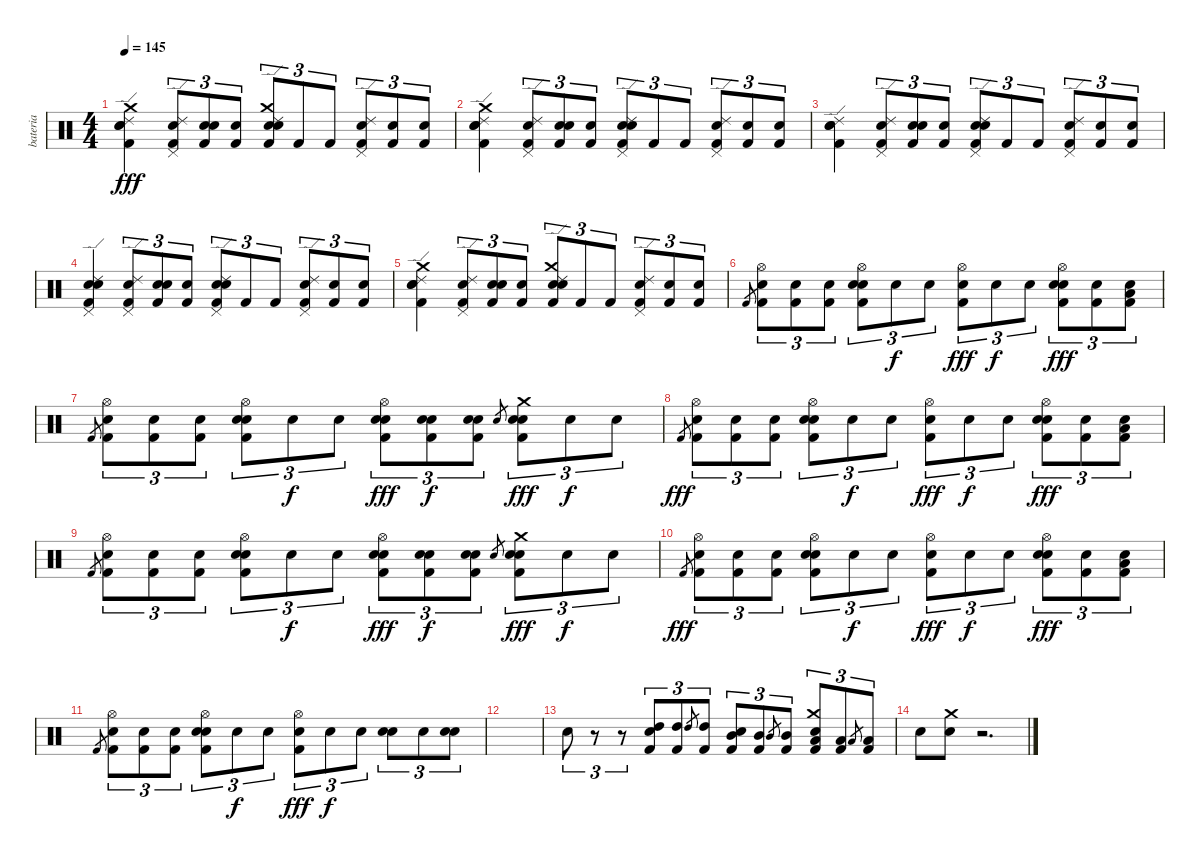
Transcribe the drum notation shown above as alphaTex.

\track ("bateria" "bateria") {instrument percussion}
\staff {score}
\articulation defaults
\ts (4 4)
\tempo 145
\clef neutral
\ks c
("Snare (hit)" "Kick (hit) 2" "Snare (hit) 2" "Crash medium (hit)" "Ride (edge) 2").4{dy fff} ("Snare (hit)" "Kick (hit) 2" "Ride (edge) 2" "Pedal Hi-Hat (hit)").8{tu (3 2)} ("Snare (hit)" "Kick (hit) 2" "Snare (hit)").8{tu (3 2)} ("Snare (hit)" "Kick (hit) 2").8{tu (3 2)} ("Snare (hit)" "Kick (hit) 2" "Snare (hit) 2" "Crash medium (hit)" "Ride (edge) 2").8{tu (3 2)} "Kick (hit) 2".8{tu (3 2)} "Kick (hit) 2".8{tu (3 2)} ("Snare (hit)" "Kick (hit) 2" "Ride (edge) 2" "Pedal Hi-Hat (hit)").8{tu (3 2)} ("Snare (hit)" "Kick (hit) 2").8{tu (3 2)} ("Snare (hit)" "Kick (hit) 2").8{tu (3 2)} |
("Snare (hit)" "Kick (hit) 2" "Snare (hit) 2" "Crash medium (hit)" "Ride (edge) 2").4 ("Snare (hit)" "Kick (hit) 2" "Ride (edge) 2" "Pedal Hi-Hat (hit)").8{tu (3 2)} ("Snare (hit)" "Kick (hit) 2" "Snare (hit)").8{tu (3 2)} ("Snare (hit)" "Kick (hit) 2").8{tu (3 2)} ("Snare (hit)" "Kick (hit) 2" "Snare (hit) 2" "Ride (edge) 2" "Pedal Hi-Hat (hit)").8{tu (3 2)} "Kick (hit) 2".8{tu (3 2)} "Kick (hit) 2".8{tu (3 2)} ("Snare (hit)" "Kick (hit) 2" "Ride (edge) 2" "Pedal Hi-Hat (hit)").8{tu (3 2)} ("Snare (hit)" "Kick (hit) 2").8{tu (3 2)} ("Snare (hit)" "Kick (hit) 2").8{tu (3 2)} |
("Snare (hit)" "Kick (hit) 2" "Snare (hit) 2" "Ride (edge) 2").4 ("Snare (hit)" "Kick (hit) 2" "Ride (edge) 2" "Pedal Hi-Hat (hit)").8{tu (3 2)} ("Snare (hit)" "Kick (hit) 2" "Snare (hit)").8{tu (3 2)} ("Snare (hit)" "Kick (hit) 2").8{tu (3 2)} ("Snare (hit)" "Kick (hit) 2" "Snare (hit) 2" "Ride (edge) 2" "Pedal Hi-Hat (hit)").8{tu (3 2)} "Kick (hit) 2".8{tu (3 2)} "Kick (hit) 2".8{tu (3 2)} ("Snare (hit)" "Kick (hit) 2" "Ride (edge) 2" "Pedal Hi-Hat (hit)").8{tu (3 2)} ("Snare (hit)" "Kick (hit) 2").8{tu (3 2)} ("Snare (hit)" "Kick (hit) 2").8{tu (3 2)} |
("Snare (hit)" "Kick (hit) 2" "Snare (hit) 2" "Ride (edge) 2" "Pedal Hi-Hat (hit)").4 ("Snare (hit)" "Kick (hit) 2" "Ride (edge) 2" "Pedal Hi-Hat (hit)").8{tu (3 2)} ("Snare (hit)" "Kick (hit) 2" "Snare (hit)").8{tu (3 2)} ("Snare (hit)" "Kick (hit) 2").8{tu (3 2)} ("Snare (hit)" "Kick (hit) 2" "Snare (hit) 2" "Ride (edge) 2" "Pedal Hi-Hat (hit)").8{tu (3 2)} "Kick (hit) 2".8{tu (3 2)} "Kick (hit) 2".8{tu (3 2)} ("Snare (hit)" "Kick (hit) 2" "Ride (edge) 2" "Pedal Hi-Hat (hit)").8{tu (3 2)} ("Snare (hit)" "Kick (hit) 2").8{tu (3 2)} ("Snare (hit)" "Kick (hit) 2").8{tu (3 2)} |
("Snare (hit)" "Kick (hit) 2" "Snare (hit) 2" "Crash medium (hit)" "Ride (edge) 2").4 ("Snare (hit)" "Kick (hit) 2" "Ride (edge) 2" "Pedal Hi-Hat (hit)").8{tu (3 2)} ("Snare (hit)" "Kick (hit) 2" "Snare (hit)").8{tu (3 2)} ("Snare (hit)" "Kick (hit) 2").8{tu (3 2)} ("Snare (hit)" "Kick (hit) 2" "Snare (hit) 2" "Crash medium (hit)" "Ride (edge) 2").8{tu (3 2)} "Kick (hit) 2".8{tu (3 2)} "Kick (hit) 2".8{tu (3 2)} ("Snare (hit)" "Kick (hit) 2" "Ride (edge) 2" "Pedal Hi-Hat (hit)").8{tu (3 2)} ("Snare (hit)" "Kick (hit) 2").8{tu (3 2)} ("Snare (hit)" "Kick (hit) 2").8{tu (3 2)} |
"Kick (hit) 2".8{gr} ("Snare (hit)" "Kick (hit) 2" "Hi-Hat (open)").8{tu (3 2)} ("Snare (hit)" "Kick (hit) 2").8{tu (3 2)} ("Snare (hit)" "Kick (hit) 2").8{tu (3 2)} ("Snare (hit)" "Kick (hit) 2" "Snare (hit) 2" "Hi-Hat (open)").8{tu (3 2)} "Snare (hit)".8{tu (3 2) dy f} "Snare (hit)".8{tu (3 2)} ("Snare (hit)" "Kick (hit) 2" "Hi-Hat (open)").8{tu (3 2) dy fff} "Snare (hit)".8{tu (3 2) dy f} "Snare (hit)".8{tu (3 2)} ("Snare (hit)" "Kick (hit) 2" "Snare (hit) 2" "Hi-Hat (open)").8{tu (3 2) dy fff} ("Snare (hit)" "Kick (hit) 2").8{tu (3 2)} ("Snare (hit)" "Kick (hit) 2" "Low Tom (hit)").8{tu (3 2)} |
"Kick (hit) 2".8{gr} ("Snare (hit)" "Kick (hit) 2" "Hi-Hat (open)").8{tu (3 2)} ("Snare (hit)" "Kick (hit) 2").8{tu (3 2)} ("Snare (hit)" "Kick (hit) 2").8{tu (3 2)} ("Snare (hit)" "Kick (hit) 2" "Snare (hit) 2" "Hi-Hat (open)").8{tu (3 2)} "Snare (hit)".8{tu (3 2) dy f} "Snare (hit)".8{tu (3 2)} ("Snare (hit)" "Kick (hit) 2" "Snare (hit) 2" "Hi-Hat (open)").8{tu (3 2) dy fff} ("Snare (hit)" "Kick (hit) 2" "Snare (hit) 2").8{tu (3 2) dy f} ("Snare (hit)" "Kick (hit) 2" "Snare (hit) 2").8{tu (3 2)} "Snare (hit) 2".8{gr} ("Snare (hit)" "Kick (hit) 2" "Snare (hit) 2" "Crash medium (hit)").8{tu (3 2) dy fff} "Snare (hit)".8{tu (3 2) dy f} "Snare (hit)".8{tu (3 2)} |
"Kick (hit) 2".8{gr dy fff} ("Snare (hit)" "Kick (hit) 2" "Hi-Hat (open)").8{tu (3 2)} ("Snare (hit)" "Kick (hit) 2").8{tu (3 2)} ("Snare (hit)" "Kick (hit) 2").8{tu (3 2)} ("Snare (hit)" "Kick (hit) 2" "Snare (hit) 2" "Hi-Hat (open)").8{tu (3 2)} "Snare (hit)".8{tu (3 2) dy f} "Snare (hit)".8{tu (3 2)} ("Snare (hit)" "Kick (hit) 2" "Hi-Hat (open)").8{tu (3 2) dy fff} "Snare (hit)".8{tu (3 2) dy f} "Snare (hit)".8{tu (3 2)} ("Snare (hit)" "Kick (hit) 2" "Snare (hit) 2" "Hi-Hat (open)").8{tu (3 2) dy fff} ("Snare (hit)" "Kick (hit) 2").8{tu (3 2)} ("Snare (hit)" "Kick (hit) 2" "Low Tom (hit)").8{tu (3 2)} |
"Kick (hit) 2".8{gr} ("Snare (hit)" "Kick (hit) 2" "Hi-Hat (open)").8{tu (3 2)} ("Snare (hit)" "Kick (hit) 2").8{tu (3 2)} ("Snare (hit)" "Kick (hit) 2").8{tu (3 2)} ("Snare (hit)" "Kick (hit) 2" "Snare (hit) 2" "Hi-Hat (open)").8{tu (3 2)} "Snare (hit)".8{tu (3 2) dy f} "Snare (hit)".8{tu (3 2)} ("Snare (hit)" "Kick (hit) 2" "Snare (hit) 2" "Hi-Hat (open)").8{tu (3 2) dy fff} ("Snare (hit)" "Kick (hit) 2" "Snare (hit) 2").8{tu (3 2) dy f} ("Snare (hit)" "Kick (hit) 2" "Snare (hit) 2").8{tu (3 2)} "Snare (hit) 2".8{gr} ("Snare (hit)" "Kick (hit) 2" "Snare (hit) 2" "Crash medium (hit)").8{tu (3 2) dy fff} "Snare (hit)".8{tu (3 2) dy f} "Snare (hit)".8{tu (3 2)} |
"Kick (hit) 2".8{gr dy fff} ("Snare (hit)" "Kick (hit) 2" "Hi-Hat (open)").8{tu (3 2)} ("Snare (hit)" "Kick (hit) 2").8{tu (3 2)} ("Snare (hit)" "Kick (hit) 2").8{tu (3 2)} ("Snare (hit)" "Kick (hit) 2" "Snare (hit) 2" "Hi-Hat (open)").8{tu (3 2)} "Snare (hit)".8{tu (3 2) dy f} "Snare (hit)".8{tu (3 2)} ("Snare (hit)" "Kick (hit) 2" "Hi-Hat (open)").8{tu (3 2) dy fff} "Snare (hit)".8{tu (3 2) dy f} "Snare (hit)".8{tu (3 2)} ("Snare (hit)" "Kick (hit) 2" "Snare (hit) 2" "Hi-Hat (open)").8{tu (3 2) dy fff} ("Snare (hit)" "Kick (hit) 2").8{tu (3 2)} ("Snare (hit)" "Kick (hit) 2" "Low Tom (hit)").8{tu (3 2)} |
"Kick (hit) 2".8{gr} ("Snare (hit)" "Kick (hit) 2" "Hi-Hat (open)").8{tu (3 2)} ("Snare (hit)" "Kick (hit) 2").8{tu (3 2)} ("Snare (hit)" "Kick (hit) 2").8{tu (3 2)} ("Snare (hit)" "Kick (hit) 2" "Snare (hit) 2" "Hi-Hat (open)").8{tu (3 2)} "Snare (hit)".8{tu (3 2) dy f} "Snare (hit)".8{tu (3 2)} ("Snare (hit)" "Kick (hit) 2" "Hi-Hat (open)").8{tu (3 2) dy fff} "Snare (hit)".8{tu (3 2) dy f} "Snare (hit)".8{tu (3 2)} ("Snare (hit)" "Snare (hit) 2").8{tu (3 2)} "Snare (hit)".8{tu (3 2)} ("Snare (hit)" "Snare (hit) 2").8{tu (3 2)} |
|
"Snare (hit) 2".8{tu (3 2)} r.8{tu (3 2)} r.8{tu (3 2)} ("Kick (hit) 2" "High Tom (hit)" "Snare (hit) 2").8{tu (3 2)} ("Kick (hit) 2" "High Tom (hit)").8{tu (3 2)} "High Tom (hit)".8{gr} ("Kick (hit) 2" "High Tom (hit)").8{tu (3 2)} ("Kick (hit) 2" "Mid Tom (hit)" "Snare (hit) 2").8{tu (3 2)} ("Kick (hit) 2" "Mid Tom (hit)").8{tu (3 2)} "Mid Tom (hit)".8{gr} ("Kick (hit) 2" "Mid Tom (hit)").8{tu (3 2)} ("Kick (hit) 2" "Low Tom (hit)" "Snare (hit) 2" "Crash medium (hit)").8{tu (3 2)} ("Kick (hit) 2" "Low Tom (hit)").8{tu (3 2)} "Low Tom (hit)".8{gr} ("Kick (hit) 2" "Low Tom (hit)").8{tu (3 2)} |
"Snare (hit) 2".8 ("Snare (hit) 2" "Crash medium (hit)").8 r.2{d}
